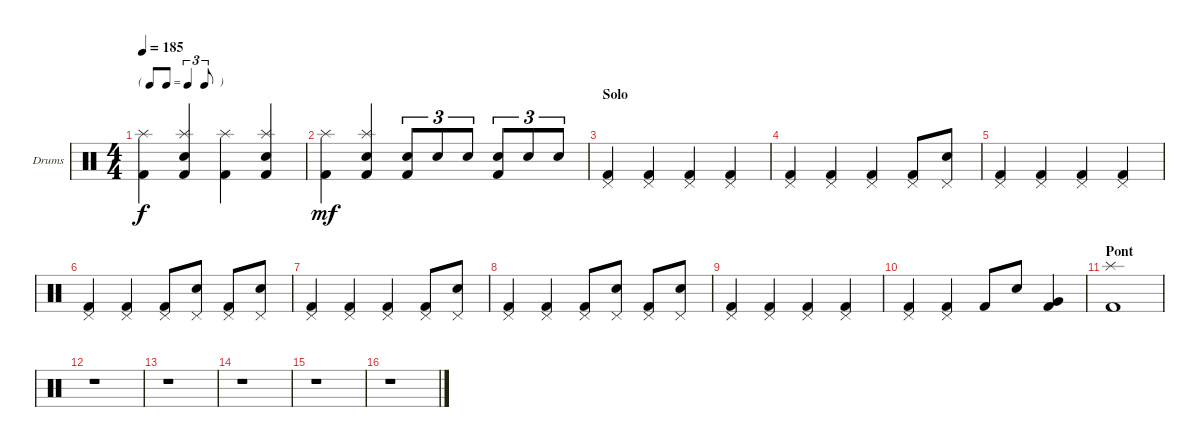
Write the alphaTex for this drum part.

\defaultSystemsLayout 4
\bracketExtendMode groupsimilarinstruments
\firstSystemTrackNameOrientation horizontal
\otherSystemsTrackNameOrientation horizontal
\track ("Batterie" "Drums") {instrument percussion}
\staff {score}
\articulation defaults
\ts (4 4)
\tf triplet8th
\tempo 185
\clef neutral
\ks c
("Kick (hit) 2" "Splash (hit)").4{dy f} ("Kick (hit) 2" "Snare (hit) 2" "Splash (hit)").4 ("Kick (hit) 2" "Splash (hit)").4 ("Kick (hit) 2" "Snare (hit) 2" "Splash (hit)").4 |
("Kick (hit) 2" "Splash (hit)").4{dy mf} ("Kick (hit) 2" "Snare (hit) 2" "Splash (hit)").4 ("Snare (hit) 2" "Kick (hit) 2").8{tu (3 2)} "Snare (hit) 2".8{tu (3 2)} "Snare (hit) 2".8{tu (3 2)} ("Snare (hit) 2" "Kick (hit) 2").8{tu (3 2)} "Snare (hit) 2".8{tu (3 2)} "Snare (hit) 2".8{tu (3 2)} |
\section ("" "Solo")
("Kick (hit) 2" "Pedal Hi-Hat (hit)").4 ("Kick (hit) 2" "Pedal Hi-Hat (hit)").4 ("Kick (hit) 2" "Pedal Hi-Hat (hit)").4 ("Kick (hit) 2" "Pedal Hi-Hat (hit)").4 |
("Kick (hit) 2" "Pedal Hi-Hat (hit)").4 ("Kick (hit) 2" "Pedal Hi-Hat (hit)").4 ("Kick (hit) 2" "Pedal Hi-Hat (hit)").4 ("Kick (hit) 2" "Pedal Hi-Hat (hit)").8 ("Pedal Hi-Hat (hit)" "Snare (hit) 2").8 |
("Kick (hit) 2" "Pedal Hi-Hat (hit)").4 ("Kick (hit) 2" "Pedal Hi-Hat (hit)").4 ("Kick (hit) 2" "Pedal Hi-Hat (hit)").4 ("Kick (hit) 2" "Pedal Hi-Hat (hit)").4 |
("Kick (hit) 2" "Pedal Hi-Hat (hit)").4 ("Kick (hit) 2" "Pedal Hi-Hat (hit)").4 ("Kick (hit) 2" "Pedal Hi-Hat (hit)").8 ("Pedal Hi-Hat (hit)" "Snare (hit) 2").8 ("Kick (hit) 2" "Pedal Hi-Hat (hit)").8 ("Pedal Hi-Hat (hit)" "Snare (hit) 2").8 |
("Kick (hit) 2" "Pedal Hi-Hat (hit)").4 ("Kick (hit) 2" "Pedal Hi-Hat (hit)").4 ("Kick (hit) 2" "Pedal Hi-Hat (hit)").4 ("Kick (hit) 2" "Pedal Hi-Hat (hit)").8 ("Pedal Hi-Hat (hit)" "Snare (hit) 2").8 |
("Kick (hit) 2" "Pedal Hi-Hat (hit)").4 ("Kick (hit) 2" "Pedal Hi-Hat (hit)").4 ("Kick (hit) 2" "Pedal Hi-Hat (hit)").8 ("Pedal Hi-Hat (hit)" "Snare (hit) 2").8 ("Kick (hit) 2" "Pedal Hi-Hat (hit)").8 ("Pedal Hi-Hat (hit)" "Snare (hit) 2").8 |
("Kick (hit) 2" "Pedal Hi-Hat (hit)").4 ("Kick (hit) 2" "Pedal Hi-Hat (hit)").4 ("Kick (hit) 2" "Pedal Hi-Hat (hit)").4 ("Kick (hit) 2" "Pedal Hi-Hat (hit)").4 |
("Kick (hit) 2" "Pedal Hi-Hat (hit)").4 ("Kick (hit) 2" "Pedal Hi-Hat (hit)").4 "Kick (hit) 2".8 "Snare (hit) 2".8 ("Very Low Tom (hit)" "Kick (hit) 2").4 |
\section ("" "Pont")
("Splash (hit)" "Kick (hit) 2").1 |
r.1 |
r.1 |
r.1 |
r.1 |
r.1
